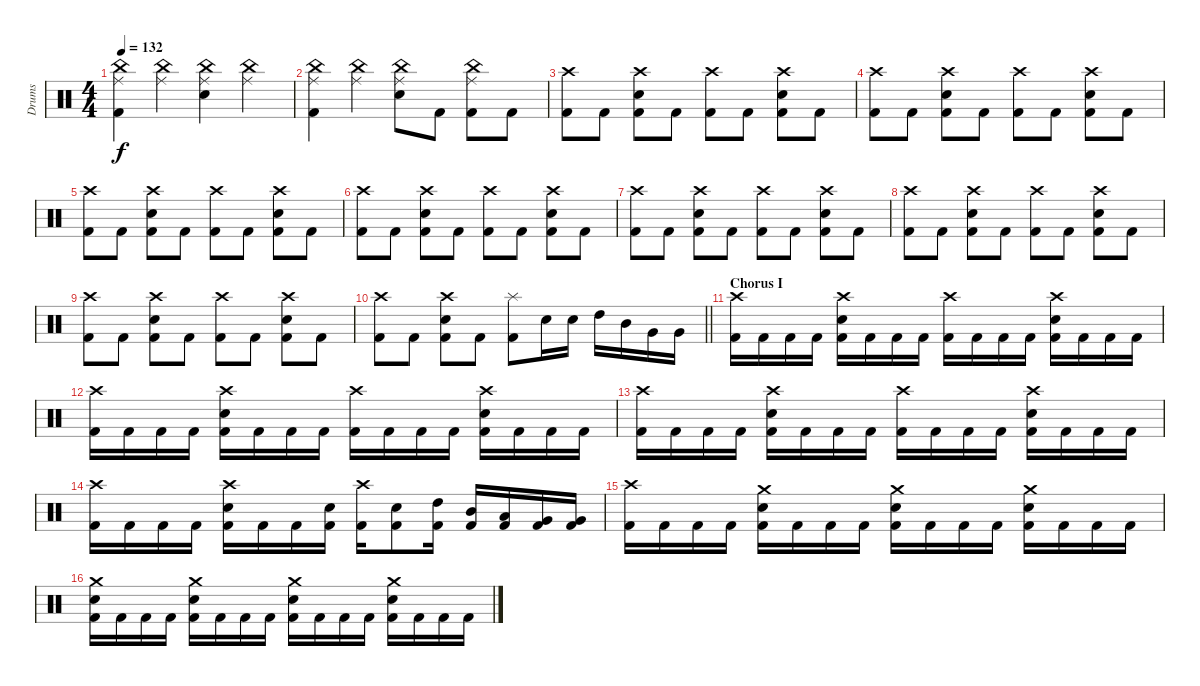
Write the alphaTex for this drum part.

\track ("Drums" "Drums") {instrument percussion}
\staff {score}
\articulation defaults
\ts (4 4)
\tempo 132
\clef neutral
\ks c
("China (hit)" "Ride (middle)" "Kick (hit) 2").4{dy f} ("China (hit)" "Ride (middle)").4 ("China (hit)" "Ride (middle)" "Snare (hit) 2").4 ("China (hit)" "Ride (middle)").4 |
("China (hit)" "Ride (middle)" "Kick (hit) 2").4 ("China (hit)" "Ride (middle)").4 ("China (hit)" "Ride (middle)" "Snare (hit) 2").8 "Kick (hit) 2".8 ("China (hit)" "Ride (middle)" "Kick (hit) 2").8 "Kick (hit) 2".8 |
("Crash high (hit)" "Kick (hit) 2").8 "Kick (hit) 2".8 ("Crash high (hit)" "Snare (hit) 2" "Kick (hit) 2").8 "Kick (hit) 2".8 ("Crash high (hit)" "Kick (hit) 2").8 "Kick (hit) 2".8 ("Crash high (hit)" "Snare (hit) 2" "Kick (hit) 2").8 "Kick (hit) 2".8 |
("Crash high (hit)" "Kick (hit) 2").8 "Kick (hit) 2".8 ("Crash high (hit)" "Snare (hit) 2" "Kick (hit) 2").8 "Kick (hit) 2".8 ("Crash high (hit)" "Kick (hit) 2").8 "Kick (hit) 2".8 ("Crash high (hit)" "Snare (hit) 2" "Kick (hit) 2").8 "Kick (hit) 2".8 |
("Crash high (hit)" "Kick (hit) 2").8 "Kick (hit) 2".8 ("Crash high (hit)" "Snare (hit) 2" "Kick (hit) 2").8 "Kick (hit) 2".8 ("Crash high (hit)" "Kick (hit) 2").8 "Kick (hit) 2".8 ("Crash high (hit)" "Snare (hit) 2" "Kick (hit) 2").8 "Kick (hit) 2".8 |
("Crash high (hit)" "Kick (hit) 2").8 "Kick (hit) 2".8 ("Crash high (hit)" "Snare (hit) 2" "Kick (hit) 2").8 "Kick (hit) 2".8 ("Crash high (hit)" "Kick (hit) 2").8 "Kick (hit) 2".8 ("Crash high (hit)" "Snare (hit) 2" "Kick (hit) 2").8 "Kick (hit) 2".8 |
("Crash high (hit)" "Kick (hit) 2").8 "Kick (hit) 2".8 ("Crash high (hit)" "Snare (hit) 2" "Kick (hit) 2").8 "Kick (hit) 2".8 ("Crash high (hit)" "Kick (hit) 2").8 "Kick (hit) 2".8 ("Crash high (hit)" "Snare (hit) 2" "Kick (hit) 2").8 "Kick (hit) 2".8 |
("Crash high (hit)" "Kick (hit) 2").8 "Kick (hit) 2".8 ("Crash high (hit)" "Snare (hit) 2" "Kick (hit) 2").8 "Kick (hit) 2".8 ("Crash high (hit)" "Kick (hit) 2").8 "Kick (hit) 2".8 ("Crash high (hit)" "Snare (hit) 2" "Kick (hit) 2").8 "Kick (hit) 2".8 |
("Crash high (hit)" "Kick (hit) 2").8 "Kick (hit) 2".8 ("Crash high (hit)" "Snare (hit) 2" "Kick (hit) 2").8 "Kick (hit) 2".8 ("Crash high (hit)" "Kick (hit) 2").8 "Kick (hit) 2".8 ("Crash high (hit)" "Snare (hit) 2" "Kick (hit) 2").8 "Kick (hit) 2".8 |
\barLineRight lightlight
("Crash high (hit)" "Kick (hit) 2").8 "Kick (hit) 2".8 ("Crash high (hit)" "Snare (hit) 2" "Kick (hit) 2").8 "Kick (hit) 2".8 ("Splash (hit)" "Kick (hit) 2").8 "Snare (hit) 2".16 "Snare (hit) 2".16 "High Tom (hit)".16 "Mid Tom (hit)".16 "Very Low Tom (hit)".16 "Very Low Tom (hit)".16 |
\section ("" "Chorus I")
("Crash high (hit)" "Kick (hit) 2").16 "Kick (hit) 2".16 "Kick (hit) 2".16 "Kick (hit) 2".16 ("Crash high (hit)" "Snare (hit) 2" "Kick (hit) 2").16 "Kick (hit) 2".16 "Kick (hit) 2".16 "Kick (hit) 2".16 ("Crash high (hit)" "Kick (hit) 2").16 "Kick (hit) 2".16 "Kick (hit) 2".16 "Kick (hit) 2".16 ("Crash high (hit)" "Snare (hit) 2" "Kick (hit) 2").16 "Kick (hit) 2".16 "Kick (hit) 2".16 "Kick (hit) 2".16 |
("Crash high (hit)" "Kick (hit) 2").16 "Kick (hit) 2".16 "Kick (hit) 2".16 "Kick (hit) 2".16 ("Crash high (hit)" "Snare (hit) 2" "Kick (hit) 2").16 "Kick (hit) 2".16 "Kick (hit) 2".16 "Kick (hit) 2".16 ("Crash high (hit)" "Kick (hit) 2").16 "Kick (hit) 2".16 "Kick (hit) 2".16 "Kick (hit) 2".16 ("Crash high (hit)" "Snare (hit) 2" "Kick (hit) 2").16 "Kick (hit) 2".16 "Kick (hit) 2".16 "Kick (hit) 2".16 |
("Crash high (hit)" "Kick (hit) 2").16 "Kick (hit) 2".16 "Kick (hit) 2".16 "Kick (hit) 2".16 ("Crash high (hit)" "Snare (hit) 2" "Kick (hit) 2").16 "Kick (hit) 2".16 "Kick (hit) 2".16 "Kick (hit) 2".16 ("Crash high (hit)" "Kick (hit) 2").16 "Kick (hit) 2".16 "Kick (hit) 2".16 "Kick (hit) 2".16 ("Crash high (hit)" "Snare (hit) 2" "Kick (hit) 2").16 "Kick (hit) 2".16 "Kick (hit) 2".16 "Kick (hit) 2".16 |
("Crash high (hit)" "Kick (hit) 2").16 "Kick (hit) 2".16 "Kick (hit) 2".16 "Kick (hit) 2".16 ("Crash high (hit)" "Snare (hit) 2" "Kick (hit) 2").16 "Kick (hit) 2".16 "Kick (hit) 2".16 ("Snare (hit) 2" "Kick (hit) 2").16 ("Crash high (hit)" "Kick (hit) 2").16 ("Snare (hit) 2" "Kick (hit) 2").8 ("High Tom (hit)" "Kick (hit) 2").16 ("Mid Tom (hit)" "Kick (hit) 2").16 ("Low Tom (hit)" "Kick (hit) 2").16 ("Very Low Tom (hit)" "Kick (hit) 2").16 ("Very Low Tom (hit)" "Kick (hit) 2").16 |
("Crash high (hit)" "Kick (hit) 2").16 "Kick (hit) 2".16 "Kick (hit) 2".16 "Kick (hit) 2".16 ("Crash medium (hit)" "Snare (hit) 2" "Kick (hit) 2").16 "Kick (hit) 2".16 "Kick (hit) 2".16 "Kick (hit) 2".16 ("Crash medium (hit)" "Snare (hit) 2" "Kick (hit) 2").16 "Kick (hit) 2".16 "Kick (hit) 2".16 "Kick (hit) 2".16 ("Crash medium (hit)" "Snare (hit) 2" "Kick (hit) 2").16 "Kick (hit) 2".16 "Kick (hit) 2".16 "Kick (hit) 2".16 |
("Crash medium (hit)" "Snare (hit) 2" "Kick (hit) 2").16 "Kick (hit) 2".16 "Kick (hit) 2".16 "Kick (hit) 2".16 ("Crash medium (hit)" "Snare (hit) 2" "Kick (hit) 2").16 "Kick (hit) 2".16 "Kick (hit) 2".16 "Kick (hit) 2".16 ("Crash medium (hit)" "Snare (hit) 2" "Kick (hit) 2").16 "Kick (hit) 2".16 "Kick (hit) 2".16 "Kick (hit) 2".16 ("Crash medium (hit)" "Snare (hit) 2" "Kick (hit) 2").16 "Kick (hit) 2".16 "Kick (hit) 2".16 "Kick (hit) 2".16
